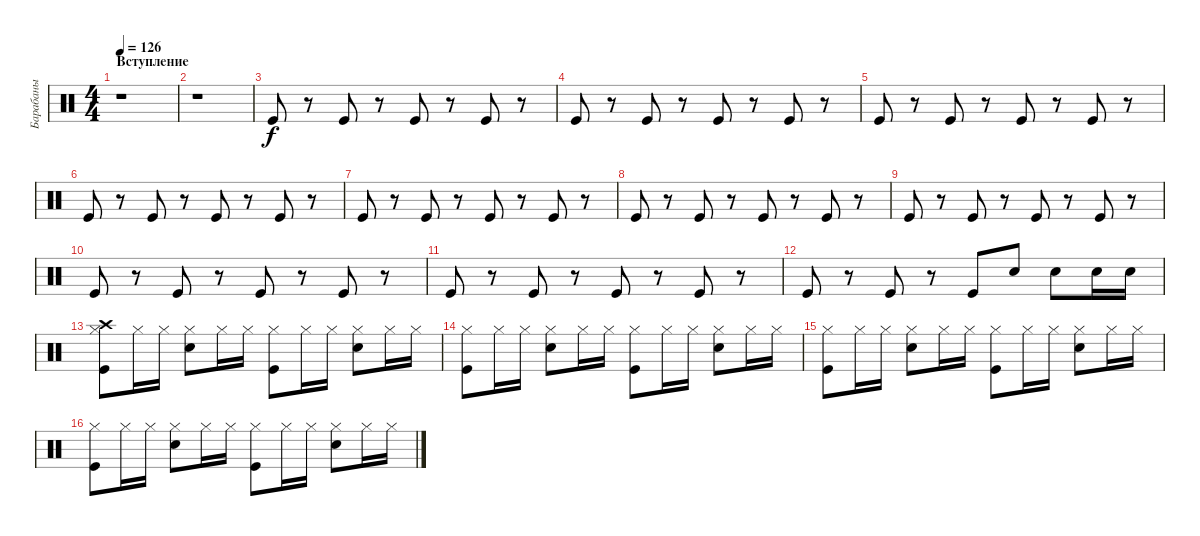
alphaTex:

\track ("Барабаны" "Барабаны") {instrument percussion}
\staff {score}
\articulation defaults
\ts (4 4)
\section ("" "Вступление")
\tempo 126
\clef neutral
\ks c
r.1{dy f} |
r.1 |
"Kick (hit)".8 r.8 "Kick (hit)".8 r.8 "Kick (hit)".8 r.8 "Kick (hit)".8 r.8 |
"Kick (hit)".8 r.8 "Kick (hit)".8 r.8 "Kick (hit)".8 r.8 "Kick (hit)".8 r.8 |
"Kick (hit)".8 r.8 "Kick (hit)".8 r.8 "Kick (hit)".8 r.8 "Kick (hit)".8 r.8 |
"Kick (hit)".8 r.8 "Kick (hit)".8 r.8 "Kick (hit)".8 r.8 "Kick (hit)".8 r.8 |
"Kick (hit)".8 r.8 "Kick (hit)".8 r.8 "Kick (hit)".8 r.8 "Kick (hit)".8 r.8 |
"Kick (hit)".8 r.8 "Kick (hit)".8 r.8 "Kick (hit)".8 r.8 "Kick (hit)".8 r.8 |
"Kick (hit)".8 r.8 "Kick (hit)".8 r.8 "Kick (hit)".8 r.8 "Kick (hit)".8 r.8 |
"Kick (hit)".8 r.8 "Kick (hit)".8 r.8 "Kick (hit)".8 r.8 "Kick (hit)".8 r.8 |
"Kick (hit)".8 r.8 "Kick (hit)".8 r.8 "Kick (hit)".8 r.8 "Kick (hit)".8 r.8 |
"Kick (hit)".8 r.8 "Kick (hit)".8 r.8 "Kick (hit)".8 "Snare (hit) 2".8 "Snare (hit) 2".8 "Snare (hit) 2".16 "Snare (hit) 2".16 |
("Kick (hit)" "Hi-Hat (closed)" "Crash high (hit)").8 "Hi-Hat (closed)".16 "Hi-Hat (closed)".16 ("Snare (hit) 2" "Hi-Hat (closed)").8 "Hi-Hat (closed)".16 "Hi-Hat (closed)".16 ("Kick (hit)" "Hi-Hat (closed)").8 "Hi-Hat (closed)".16 "Hi-Hat (closed)".16 ("Snare (hit) 2" "Hi-Hat (closed)").8 "Hi-Hat (closed)".16 "Hi-Hat (closed)".16 |
("Kick (hit)" "Hi-Hat (closed)").8 "Hi-Hat (closed)".16 "Hi-Hat (closed)".16 ("Snare (hit) 2" "Hi-Hat (closed)").8 "Hi-Hat (closed)".16 "Hi-Hat (closed)".16 ("Kick (hit)" "Hi-Hat (closed)").8 "Hi-Hat (closed)".16 "Hi-Hat (closed)".16 ("Snare (hit) 2" "Hi-Hat (closed)").8 "Hi-Hat (closed)".16 "Hi-Hat (closed)".16 |
("Kick (hit)" "Hi-Hat (closed)").8 "Hi-Hat (closed)".16 "Hi-Hat (closed)".16 ("Snare (hit) 2" "Hi-Hat (closed)").8 "Hi-Hat (closed)".16 "Hi-Hat (closed)".16 ("Kick (hit)" "Hi-Hat (closed)").8 "Hi-Hat (closed)".16 "Hi-Hat (closed)".16 ("Snare (hit) 2" "Hi-Hat (closed)").8 "Hi-Hat (closed)".16 "Hi-Hat (closed)".16 |
("Kick (hit)" "Hi-Hat (closed)").8 "Hi-Hat (closed)".16 "Hi-Hat (closed)".16 ("Snare (hit) 2" "Hi-Hat (closed)").8 "Hi-Hat (closed)".16 "Hi-Hat (closed)".16 ("Kick (hit)" "Hi-Hat (closed)").8 "Hi-Hat (closed)".16 "Hi-Hat (closed)".16 ("Snare (hit) 2" "Hi-Hat (closed)").8 "Hi-Hat (closed)".16 "Hi-Hat (closed)".16
